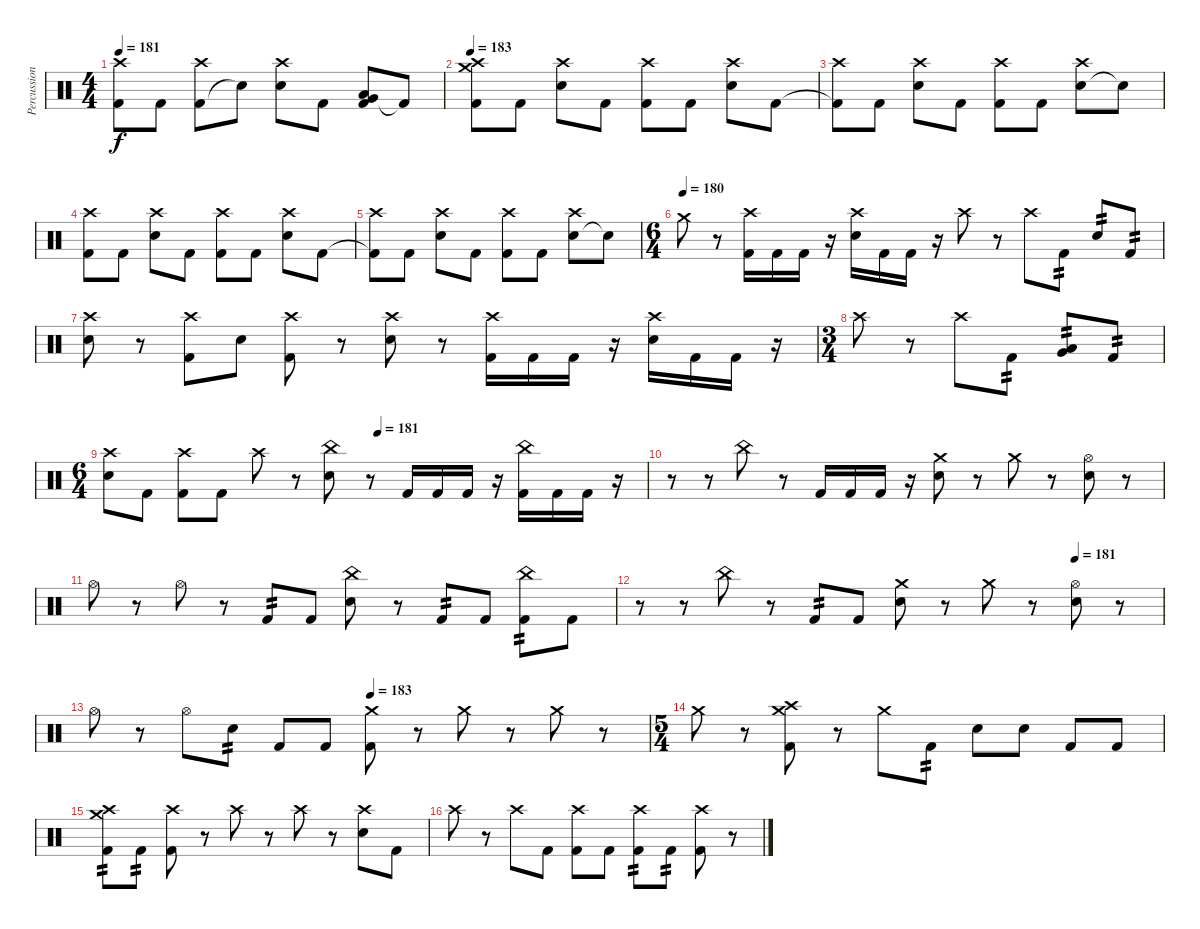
\track ("Percussion" "Percussion") {instrument percussion}
\staff {score}
\articulation defaults
\ts (4 4)
\tempo 181
\clef neutral
\ks c
("Kick (hit) 2"{t} "Crash high (hit)").8{dy f} "Kick (hit) 2".8 ("Kick (hit) 2" "Crash high (hit)").8 "Snare (hit)"{t}.8 ("Snare (hit) 2" "Crash high (hit)").8 "Kick (hit) 2".8 ("Very Low Tom (hit)" "Low Floor Tom (hit)" "Kick (hit) 2").8 "Kick (hit) 2"{t}.8 |
\tempo 183
("Kick (hit) 2" "Crash high (hit)" "Crash medium (hit)").8 "Kick (hit) 2".8 ("Snare (hit) 2" "Crash high (hit)").8 "Kick (hit) 2".8 ("Kick (hit) 2" "Crash high (hit)").8 "Kick (hit) 2".8 ("Snare (hit) 2" "Crash high (hit)").8 "Kick (hit) 2".8 |
("Kick (hit) 2"{t} "Crash high (hit)").8 "Kick (hit) 2".8 ("Snare (hit) 2" "Crash high (hit)").8 "Kick (hit) 2".8 ("Kick (hit) 2" "Crash high (hit)").8 "Kick (hit) 2".8 ("Snare (hit) 2" "Crash high (hit)").8 "Snare (hit)"{t}.8 |
("Kick (hit) 2" "Crash high (hit)").8 "Kick (hit) 2".8 ("Snare (hit) 2" "Crash high (hit)").8 "Kick (hit) 2".8 ("Kick (hit) 2" "Crash high (hit)").8 "Kick (hit) 2".8 ("Snare (hit) 2" "Crash high (hit)").8 "Kick (hit) 2".8 |
("Kick (hit) 2"{t} "Crash high (hit)").8 "Kick (hit) 2".8 ("Snare (hit) 2" "Crash high (hit)").8 "Kick (hit) 2".8 ("Kick (hit) 2" "Crash high (hit)").8 "Kick (hit) 2".8 ("Snare (hit) 2" "Crash high (hit)").8 "Snare (hit)"{t}.8 |
\ts (6 4)
\tempo (180)
"Crash medium (hit)".8 r.8 ("Kick (hit) 2" "Crash high (hit)").16 "Kick (hit) 2".16 "Kick (hit) 2".16 r.16 ("Snare (hit) 2" "Crash high (hit)").16 "Kick (hit) 2".16 "Kick (hit) 2".16 r.16 "Crash high (hit)".8 r.8 "Crash high (hit)".8 "Kick (hit) 2".8{tp 2} "Snare (hit) 2".8{tp 2} "Kick (hit) 2".8{tp 2} |
("Snare (hit) 2" "Crash high (hit)").8 r.8 ("Kick (hit) 2" "Crash high (hit)").8 "Snare (hit) 2".8 ("Kick (hit) 2" "Crash high (hit)").8 r.8 ("Crash high (hit)" "Snare (hit) 2").8 r.8 ("Kick (hit) 2" "Crash high (hit)").16 "Kick (hit) 2".16 "Kick (hit) 2".16 r.16 ("Snare (hit) 2" "Crash high (hit)").16 "Kick (hit) 2".16 "Kick (hit) 2".16 r.16 |
\ts (3 4)
"Crash high (hit)".8 r.8 "Crash high (hit)".8 "Kick (hit) 2".8{tp 2} ("Low Tom (hit)" "Very Low Tom (hit)").8{tp 2} "Kick (hit) 2".8{tp 2} |
\ts (6 4)
\tempo (181 0.5)
("Snare (hit) 2" "Crash high (hit)").8 "Kick (hit) 2".8 ("Kick (hit) 2" "Crash high (hit)").8 "Kick (hit) 2".8 "Crash high (hit)".8 r.8 ("Snare (hit) 2" "China (hit)").8 r.8 "Kick (hit) 2".16 "Kick (hit) 2".16 "Kick (hit) 2".16 r.16 ("Kick (hit) 2" "China (hit)").16 "Kick (hit) 2".16 "Kick (hit) 2".16 r.16 |
r.8 r.8 "China (hit)".8 r.8 "Kick (hit) 2".16 "Kick (hit) 2".16 "Kick (hit) 2".16 r.16 ("Crash medium (hit)" "Snare (hit) 2").8 r.8 "Crash medium (hit)".8 r.8 ("Hi-Hat (open)" "Snare (hit) 2").8 r.8 |
"Hi-Hat (open)".8 r.8 "Hi-Hat (open)".8 r.8 "Kick (hit) 2".8{tp 2} "Kick (hit) 2".8 ("China (hit)" "Snare (hit) 2").8 r.8 "Kick (hit) 2".8{tp 2} "Kick (hit) 2".8 ("China (hit)" "Kick (hit) 2").8{tp 2} "Kick (hit) 2".8 |
\tempo (181 0.8333333333333334)
r.8 r.8 "China (hit)".8 r.8 "Kick (hit) 2".8{tp 2} "Kick (hit) 2".8 ("Snare (hit) 2" "Crash medium (hit)").8 r.8 "Crash medium (hit)".8 r.8 ("Snare (hit) 2" "Hi-Hat (open)").8 r.8 |
\tempo (183 0.5)
"Hi-Hat (open)".8 r.8 "Hi-Hat (open)".8 "Snare (hit) 2".8{tp 2} "Kick (hit) 2".8 "Kick (hit) 2".8 ("Crash medium (hit)" "Kick (hit) 2").8 r.8 "Crash medium (hit)".8 r.8 "Crash medium (hit)".8 r.8 |
\ts (5 4)
"Crash medium (hit)".8 r.8 ("Kick (hit) 2" "Crash medium (hit)" "Crash high (hit)").8 r.8 "Crash medium (hit)".8 "Kick (hit) 2".8{tp 2} "Snare (hit) 2".8 "Snare (hit) 2".8 "Kick (hit) 2".8 "Kick (hit) 2".8 |
("Crash high (hit)" "Crash medium (hit)" "Kick (hit) 2").8{tp 2} "Kick (hit) 2".8{tp 2} ("Crash high (hit)" "Kick (hit) 2").8 r.8 "Crash high (hit)".8 r.8 "Crash high (hit)".8 r.8 ("Crash high (hit)" "Snare (hit) 2").8 "Kick (hit) 2".8 |
"Crash high (hit)".8 r.8 "Crash high (hit)".8 "Kick (hit) 2".8 ("Kick (hit) 2" "Crash high (hit)").8 "Kick (hit) 2".8 ("Kick (hit) 2" "Crash high (hit)").8{tp 2} "Kick (hit) 2".8{tp 2} ("Kick (hit) 2" "Crash high (hit)").8 r.8
